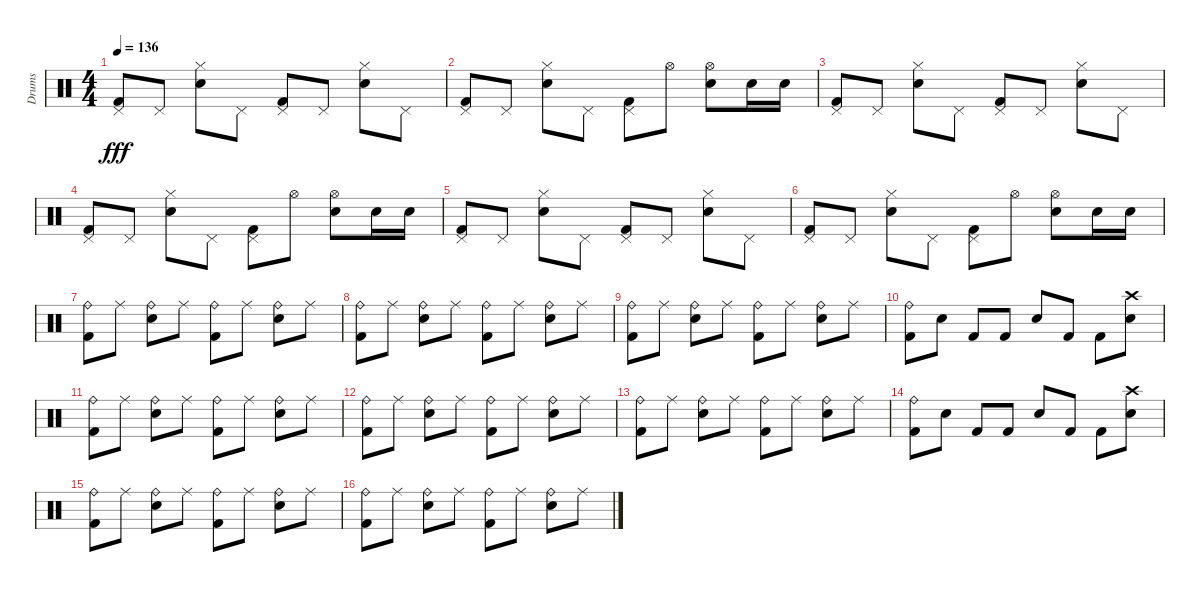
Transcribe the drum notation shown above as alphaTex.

\track ("Drums" "Drums") {instrument percussion}
\staff {score}
\articulation defaults
\ts (4 4)
\tempo 136
\clef neutral
\ks c
("Pedal Hi-Hat (hit)" "Kick (hit) 2").8{dy fff} "Pedal Hi-Hat (hit)".8 ("Hi-Hat (closed)" "Snare (hit) 2").8 "Pedal Hi-Hat (hit)".8 ("Pedal Hi-Hat (hit)" "Kick (hit) 2").8 "Pedal Hi-Hat (hit)".8 ("Hi-Hat (closed)" "Snare (hit) 2").8 "Pedal Hi-Hat (hit)".8 |
("Pedal Hi-Hat (hit)" "Kick (hit) 2").8 "Pedal Hi-Hat (hit)".8 ("Hi-Hat (closed)" "Snare (hit) 2").8 "Pedal Hi-Hat (hit)".8 ("Pedal Hi-Hat (hit)" "Kick (hit) 2").8 "Hi-Hat (open)".8 ("Hi-Hat (open)" "Snare (hit) 2").8 "Snare (hit) 2".16 "Snare (hit) 2".16 |
("Pedal Hi-Hat (hit)" "Kick (hit) 2").8 "Pedal Hi-Hat (hit)".8 ("Hi-Hat (closed)" "Snare (hit) 2").8 "Pedal Hi-Hat (hit)".8 ("Pedal Hi-Hat (hit)" "Kick (hit) 2").8 "Pedal Hi-Hat (hit)".8 ("Hi-Hat (closed)" "Snare (hit) 2").8 "Pedal Hi-Hat (hit)".8 |
("Pedal Hi-Hat (hit)" "Kick (hit) 2").8 "Pedal Hi-Hat (hit)".8 ("Hi-Hat (closed)" "Snare (hit) 2").8 "Pedal Hi-Hat (hit)".8 ("Pedal Hi-Hat (hit)" "Kick (hit) 2").8 "Hi-Hat (open)".8 ("Hi-Hat (open)" "Snare (hit) 2").8 "Snare (hit) 2".16 "Snare (hit) 2".16 |
("Pedal Hi-Hat (hit)" "Kick (hit) 2").8 "Pedal Hi-Hat (hit)".8 ("Hi-Hat (closed)" "Snare (hit) 2").8 "Pedal Hi-Hat (hit)".8 ("Pedal Hi-Hat (hit)" "Kick (hit) 2").8 "Pedal Hi-Hat (hit)".8 ("Hi-Hat (closed)" "Snare (hit) 2").8 "Pedal Hi-Hat (hit)".8 |
("Pedal Hi-Hat (hit)" "Kick (hit) 2").8 "Pedal Hi-Hat (hit)".8 ("Hi-Hat (closed)" "Snare (hit) 2").8 "Pedal Hi-Hat (hit)".8 ("Pedal Hi-Hat (hit)" "Kick (hit) 2").8 "Hi-Hat (open)".8 ("Hi-Hat (open)" "Snare (hit) 2").8 "Snare (hit) 2".16 "Snare (hit) 2".16 |
("Ride (bell)" "Kick (hit) 2").8 "Ride (middle)".8 ("Ride (bell)" "Snare (hit) 2").8 "Ride (middle)".8 ("Ride (bell)" "Kick (hit) 2").8 "Ride (middle)".8 ("Ride (bell)" "Snare (hit) 2").8 "Ride (middle)".8 |
("Ride (bell)" "Kick (hit) 2").8 "Ride (middle)".8 ("Ride (bell)" "Snare (hit) 2").8 "Ride (middle)".8 ("Ride (bell)" "Kick (hit) 2").8 "Ride (middle)".8 ("Ride (bell)" "Snare (hit) 2").8 "Ride (middle)".8 |
("Ride (bell)" "Kick (hit) 2").8 "Ride (middle)".8 ("Ride (bell)" "Snare (hit) 2").8 "Ride (middle)".8 ("Ride (bell)" "Kick (hit) 2").8 "Ride (middle)".8 ("Ride (bell)" "Snare (hit) 2").8 "Ride (middle)".8 |
("Ride (bell)" "Kick (hit) 2").8 "Snare (hit) 2".8 "Kick (hit) 2".8 "Kick (hit) 2".8 "Snare (hit) 2".8 "Kick (hit) 2".8 "Kick (hit) 2".8 ("Crash high (hit)" "Snare (hit) 2").8 |
("Ride (bell)" "Kick (hit) 2").8 "Ride (middle)".8 ("Ride (bell)" "Snare (hit) 2").8 "Ride (middle)".8 ("Ride (bell)" "Kick (hit) 2").8 "Ride (middle)".8 ("Ride (bell)" "Snare (hit) 2").8 "Ride (middle)".8 |
("Ride (bell)" "Kick (hit) 2").8 "Ride (middle)".8 ("Ride (bell)" "Snare (hit) 2").8 "Ride (middle)".8 ("Ride (bell)" "Kick (hit) 2").8 "Ride (middle)".8 ("Ride (bell)" "Snare (hit) 2").8 "Ride (middle)".8 |
("Ride (bell)" "Kick (hit) 2").8 "Ride (middle)".8 ("Ride (bell)" "Snare (hit) 2").8 "Ride (middle)".8 ("Ride (bell)" "Kick (hit) 2").8 "Ride (middle)".8 ("Ride (bell)" "Snare (hit) 2").8 "Ride (middle)".8 |
("Ride (bell)" "Kick (hit) 2").8 "Snare (hit) 2".8 "Kick (hit) 2".8 "Kick (hit) 2".8 "Snare (hit) 2".8 "Kick (hit) 2".8 "Kick (hit) 2".8 ("Crash high (hit)" "Snare (hit) 2").8 |
("Ride (bell)" "Kick (hit) 2").8 "Ride (middle)".8 ("Ride (bell)" "Snare (hit) 2").8 "Ride (middle)".8 ("Ride (bell)" "Kick (hit) 2").8 "Ride (middle)".8 ("Ride (bell)" "Snare (hit) 2").8 "Ride (middle)".8 |
("Ride (bell)" "Kick (hit) 2").8 "Ride (middle)".8 ("Ride (bell)" "Snare (hit) 2").8 "Ride (middle)".8 ("Ride (bell)" "Kick (hit) 2").8 "Ride (middle)".8 ("Ride (bell)" "Snare (hit) 2").8 "Ride (middle)".8
